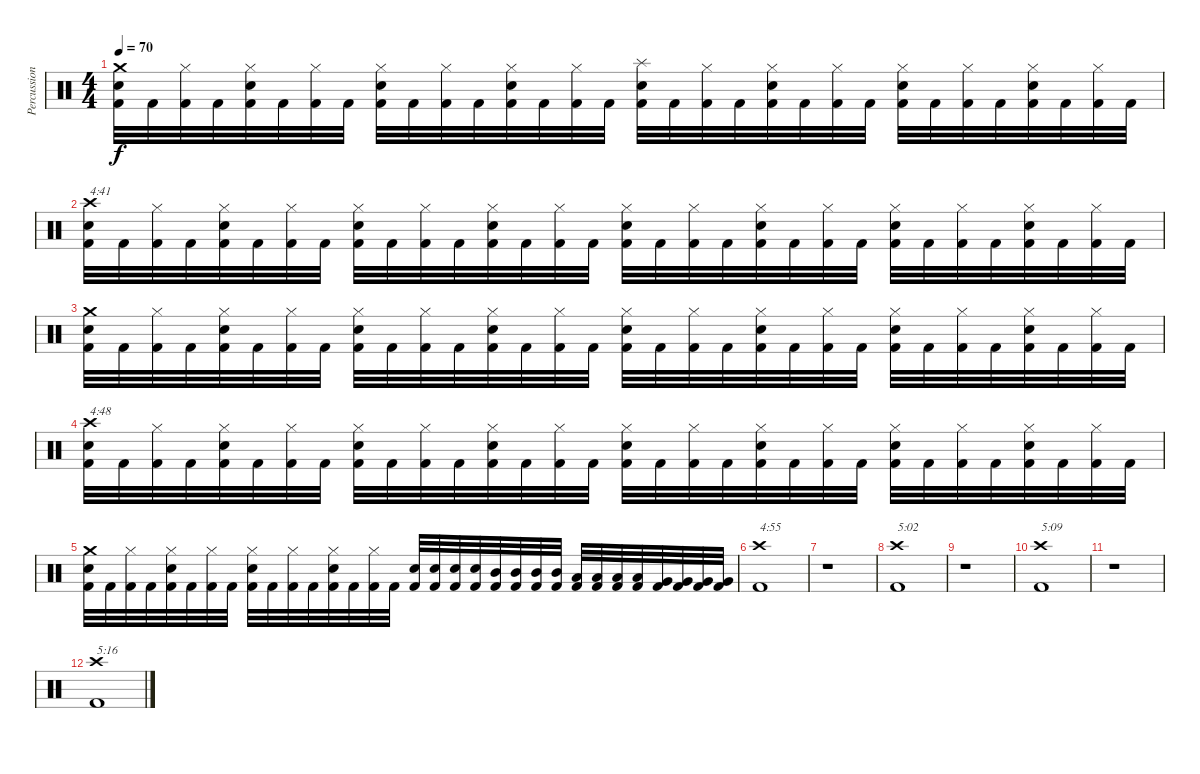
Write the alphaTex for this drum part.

\track ("Percussion" "Percussion") {instrument percussion}
\staff {score}
\articulation defaults
\ts (4 4)
\tempo 70
\clef neutral
\ks c
("Crash medium (hit)" "Snare (hit) 2" "Kick (hit) 2").32{dy f} "Kick (hit) 2".32 ("Hi-Hat (closed)" "Kick (hit) 2").32 "Kick (hit) 2".32 ("Hi-Hat (closed)" "Snare (hit) 2" "Kick (hit) 2").32 "Kick (hit) 2".32 ("Hi-Hat (closed)" "Kick (hit) 2").32 "Kick (hit) 2".32 ("Hi-Hat (closed)" "Snare (hit) 2" "Kick (hit) 2").32 "Kick (hit) 2".32 ("Hi-Hat (closed)" "Kick (hit) 2").32 "Kick (hit) 2".32 ("Hi-Hat (closed)" "Snare (hit) 2" "Kick (hit) 2").32 "Kick (hit) 2".32 ("Hi-Hat (closed)" "Kick (hit) 2").32 "Kick (hit) 2".32 ("Splash (hit)" "Snare (hit) 2" "Kick (hit) 2").32 "Kick (hit) 2".32 ("Hi-Hat (closed)" "Kick (hit) 2").32 "Kick (hit) 2".32 ("Hi-Hat (closed)" "Snare (hit) 2" "Kick (hit) 2").32 "Kick (hit) 2".32 ("Hi-Hat (closed)" "Kick (hit) 2").32 "Kick (hit) 2".32 ("Hi-Hat (closed)" "Snare (hit) 2" "Kick (hit) 2").32 "Kick (hit) 2".32 ("Hi-Hat (closed)" "Kick (hit) 2").32 "Kick (hit) 2".32 ("Hi-Hat (closed)" "Snare (hit) 2" "Kick (hit) 2").32 "Kick (hit) 2".32 ("Hi-Hat (closed)" "Kick (hit) 2").32 "Kick (hit) 2".32 |
("Crash high (hit)" "Snare (hit) 2" "Kick (hit) 2").32{txt "4:41"} "Kick (hit) 2".32 ("Hi-Hat (closed)" "Kick (hit) 2").32 "Kick (hit) 2".32 ("Hi-Hat (closed)" "Snare (hit) 2" "Kick (hit) 2").32 "Kick (hit) 2".32 ("Hi-Hat (closed)" "Kick (hit) 2").32 "Kick (hit) 2".32 ("Hi-Hat (closed)" "Snare (hit) 2" "Kick (hit) 2").32 "Kick (hit) 2".32 ("Hi-Hat (closed)" "Kick (hit) 2").32 "Kick (hit) 2".32 ("Hi-Hat (closed)" "Snare (hit) 2" "Kick (hit) 2").32 "Kick (hit) 2".32 ("Hi-Hat (closed)" "Kick (hit) 2").32 "Kick (hit) 2".32 ("Hi-Hat (closed)" "Snare (hit) 2" "Kick (hit) 2").32 "Kick (hit) 2".32 ("Hi-Hat (closed)" "Kick (hit) 2").32 "Kick (hit) 2".32 ("Hi-Hat (closed)" "Snare (hit) 2" "Kick (hit) 2").32 "Kick (hit) 2".32 ("Hi-Hat (closed)" "Kick (hit) 2").32 "Kick (hit) 2".32 ("Hi-Hat (closed)" "Snare (hit) 2" "Kick (hit) 2").32 "Kick (hit) 2".32 ("Hi-Hat (closed)" "Kick (hit) 2").32 "Kick (hit) 2".32 ("Hi-Hat (closed)" "Snare (hit) 2" "Kick (hit) 2").32 "Kick (hit) 2".32 ("Hi-Hat (closed)" "Kick (hit) 2").32 "Kick (hit) 2".32 |
("Crash medium (hit)" "Snare (hit) 2" "Kick (hit) 2").32 "Kick (hit) 2".32 ("Hi-Hat (closed)" "Kick (hit) 2").32 "Kick (hit) 2".32 ("Hi-Hat (closed)" "Snare (hit) 2" "Kick (hit) 2").32 "Kick (hit) 2".32 ("Hi-Hat (closed)" "Kick (hit) 2").32 "Kick (hit) 2".32 ("Hi-Hat (closed)" "Snare (hit) 2" "Kick (hit) 2").32 "Kick (hit) 2".32 ("Hi-Hat (closed)" "Kick (hit) 2").32 "Kick (hit) 2".32 ("Hi-Hat (closed)" "Snare (hit) 2" "Kick (hit) 2").32 "Kick (hit) 2".32 ("Hi-Hat (closed)" "Kick (hit) 2").32 "Kick (hit) 2".32 ("Hi-Hat (closed)" "Snare (hit) 2" "Kick (hit) 2").32 "Kick (hit) 2".32 ("Hi-Hat (closed)" "Kick (hit) 2").32 "Kick (hit) 2".32 ("Hi-Hat (closed)" "Snare (hit) 2" "Kick (hit) 2").32 "Kick (hit) 2".32 ("Hi-Hat (closed)" "Kick (hit) 2").32 "Kick (hit) 2".32 ("Hi-Hat (closed)" "Snare (hit) 2" "Kick (hit) 2").32 "Kick (hit) 2".32 ("Hi-Hat (closed)" "Kick (hit) 2").32 "Kick (hit) 2".32 ("Hi-Hat (closed)" "Snare (hit) 2" "Kick (hit) 2").32 "Kick (hit) 2".32 ("Hi-Hat (closed)" "Kick (hit) 2").32 "Kick (hit) 2".32 |
("Crash high (hit)" "Snare (hit) 2" "Kick (hit) 2").32{txt "4:48"} "Kick (hit) 2".32 ("Hi-Hat (closed)" "Kick (hit) 2").32 "Kick (hit) 2".32 ("Hi-Hat (closed)" "Snare (hit) 2" "Kick (hit) 2").32 "Kick (hit) 2".32 ("Hi-Hat (closed)" "Kick (hit) 2").32 "Kick (hit) 2".32 ("Hi-Hat (closed)" "Snare (hit) 2" "Kick (hit) 2").32 "Kick (hit) 2".32 ("Hi-Hat (closed)" "Kick (hit) 2").32 "Kick (hit) 2".32 ("Hi-Hat (closed)" "Snare (hit) 2" "Kick (hit) 2").32 "Kick (hit) 2".32 ("Hi-Hat (closed)" "Kick (hit) 2").32 "Kick (hit) 2".32 ("Hi-Hat (closed)" "Snare (hit) 2" "Kick (hit) 2").32 "Kick (hit) 2".32 ("Hi-Hat (closed)" "Kick (hit) 2").32 "Kick (hit) 2".32 ("Hi-Hat (closed)" "Snare (hit) 2" "Kick (hit) 2").32 "Kick (hit) 2".32 ("Hi-Hat (closed)" "Kick (hit) 2").32 "Kick (hit) 2".32 ("Hi-Hat (closed)" "Snare (hit) 2" "Kick (hit) 2").32 "Kick (hit) 2".32 ("Hi-Hat (closed)" "Kick (hit) 2").32 "Kick (hit) 2".32 ("Hi-Hat (closed)" "Snare (hit) 2" "Kick (hit) 2").32 "Kick (hit) 2".32 ("Hi-Hat (closed)" "Kick (hit) 2").32 "Kick (hit) 2".32 |
("Crash medium (hit)" "Snare (hit) 2" "Kick (hit) 2").32 "Kick (hit) 2".32 ("Hi-Hat (closed)" "Kick (hit) 2").32 "Kick (hit) 2".32 ("Hi-Hat (closed)" "Snare (hit) 2" "Kick (hit) 2").32 "Kick (hit) 2".32 ("Hi-Hat (closed)" "Kick (hit) 2").32 "Kick (hit) 2".32 ("Hi-Hat (closed)" "Snare (hit) 2" "Kick (hit) 2").32 "Kick (hit) 2".32 ("Hi-Hat (closed)" "Kick (hit) 2").32 "Kick (hit) 2".32 ("Hi-Hat (closed)" "Snare (hit) 2" "Kick (hit) 2").32 "Kick (hit) 2".32 ("Hi-Hat (closed)" "Kick (hit) 2").32 "Kick (hit) 2".32 ("Snare (hit) 2" "Kick (hit) 2").32 ("Snare (hit) 2" "Kick (hit) 2").32 ("Snare (hit) 2" "Kick (hit) 2").32 ("Snare (hit) 2" "Kick (hit) 2").32 ("Mid Tom (hit)" "Kick (hit) 2").32 ("Mid Tom (hit)" "Kick (hit) 2").32 ("Mid Tom (hit)" "Kick (hit) 2").32 ("Mid Tom (hit)" "Kick (hit) 2").32 ("Low Tom (hit)" "Kick (hit) 2").32 ("Low Tom (hit)" "Kick (hit) 2").32 ("Low Tom (hit)" "Kick (hit) 2").32 ("Low Tom (hit)" "Kick (hit) 2").32 ("Very Low Tom (hit)" "Kick (hit) 2").32 ("Very Low Tom (hit)" "Kick (hit) 2").32 ("Very Low Tom (hit)" "Kick (hit) 2").32 ("Very Low Tom (hit)" "Kick (hit) 2").32 |
("Crash high (hit)" "Kick (hit) 2").1{txt "4:55"} |
r.1 |
("Crash high (hit)" "Kick (hit) 2").1{txt "5:02"} |
r.1 |
("Crash high (hit)" "Kick (hit) 2").1{txt "5:09"} |
r.1 |
("Crash high (hit)" "Kick (hit) 2").1{txt "5:16"}
